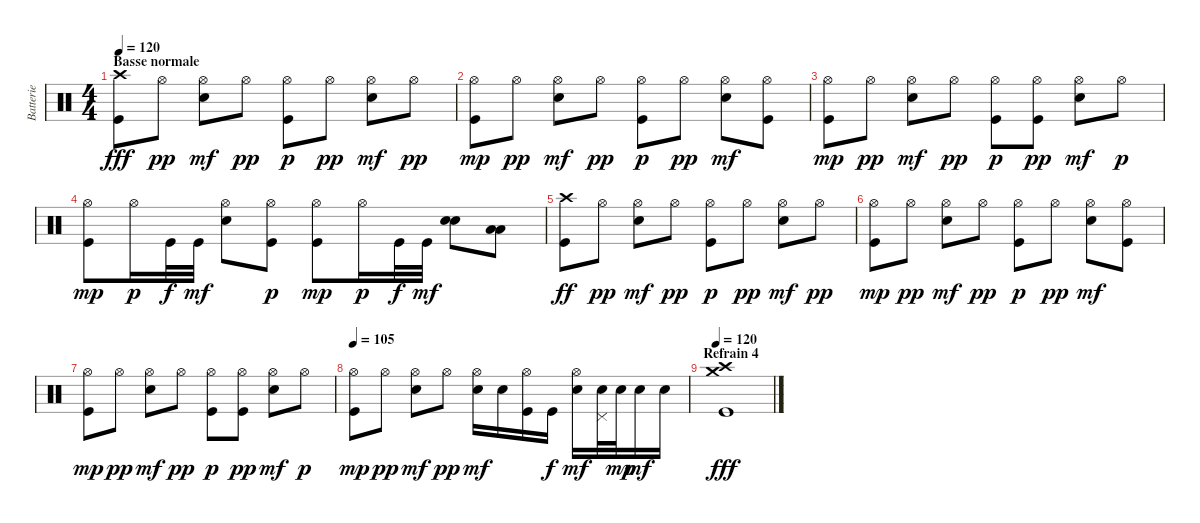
\track ("Batterie" "Batterie") {instrument percussion}
\staff {score}
\articulation defaults
\ts (4 4)
\section ("" "Basse normale")
\tempo 120
\clef neutral
\ks c
("Crash high (hit)" "Kick (hit)").8{dy fff} "Hi-Hat (open)".8{dy pp} ("Hi-Hat (open)" "Electric Snare (hit)").8{dy mf} "Hi-Hat (open)".8{dy pp} ("Hi-Hat (open)" "Kick (hit)").8{dy p} "Hi-Hat (open)".8{dy pp} ("Hi-Hat (open)" "Electric Snare (hit)").8{dy mf} "Hi-Hat (open)".8{dy pp} |
("Hi-Hat (open)" "Kick (hit)").8{dy mp} "Hi-Hat (open)".8{dy pp} ("Hi-Hat (open)" "Electric Snare (hit)").8{dy mf} "Hi-Hat (open)".8{dy pp} ("Hi-Hat (open)" "Kick (hit)").8{dy p} "Hi-Hat (open)".8{dy pp} ("Hi-Hat (open)" "Electric Snare (hit)").8{dy mf} ("Hi-Hat (open)" "Kick (hit)").8 |
("Hi-Hat (open)" "Kick (hit)").8{dy mp} "Hi-Hat (open)".8{dy pp} ("Hi-Hat (open)" "Electric Snare (hit)").8{dy mf} "Hi-Hat (open)".8{dy pp} ("Hi-Hat (open)" "Kick (hit)").8{dy p} ("Hi-Hat (open)" "Kick (hit)").8{dy pp} ("Hi-Hat (open)" "Electric Snare (hit)").8{dy mf} "Hi-Hat (open)".8{dy p} |
("Hi-Hat (open)" "Kick (hit)").8{dy mp} "Hi-Hat (open)".16{dy p} "Kick (hit)".32{dy f} "Kick (hit)".32{dy mf} ("Hi-Hat (open)" "Electric Snare (hit)").8 ("Hi-Hat (open)" "Kick (hit)").8{dy p} ("Hi-Hat (open)" "Kick (hit)").8{dy mp} "Hi-Hat (open)".16{dy p} "Kick (hit)".32{dy f} "Kick (hit)".32{dy mf} ("Electric Snare (hit)" "Electric Snare (hit)").8{bd 120} ("Low Tom (hit)" "Low Tom (hit)").8{bu 60} |
("Crash high (hit)" "Kick (hit)").8{dy ff} "Hi-Hat (open)".8{dy pp} ("Hi-Hat (open)" "Electric Snare (hit)").8{dy mf} "Hi-Hat (open)".8{dy pp} ("Hi-Hat (open)" "Kick (hit)").8{dy p} "Hi-Hat (open)".8{dy pp} ("Hi-Hat (open)" "Electric Snare (hit)").8{dy mf} "Hi-Hat (open)".8{dy pp} |
("Hi-Hat (open)" "Kick (hit)").8{dy mp} "Hi-Hat (open)".8{dy pp} ("Hi-Hat (open)" "Electric Snare (hit)").8{dy mf} "Hi-Hat (open)".8{dy pp} ("Hi-Hat (open)" "Kick (hit)").8{dy p} "Hi-Hat (open)".8{dy pp} ("Hi-Hat (open)" "Electric Snare (hit)").8{dy mf} ("Hi-Hat (open)" "Kick (hit)").8 |
("Hi-Hat (open)" "Kick (hit)").8{dy mp} "Hi-Hat (open)".8{dy pp} ("Hi-Hat (open)" "Electric Snare (hit)").8{dy mf} "Hi-Hat (open)".8{dy pp} ("Hi-Hat (open)" "Kick (hit)").8{dy p} ("Hi-Hat (open)" "Kick (hit)").8{dy pp} ("Hi-Hat (open)" "Electric Snare (hit)").8{dy mf} "Hi-Hat (open)".8{dy p} |
\tempo 105
("Hi-Hat (open)" "Kick (hit)").8{dy mp} "Hi-Hat (open)".8{dy pp} ("Hi-Hat (open)" "Electric Snare (hit)").8{dy mf} "Hi-Hat (open)".8{dy pp} ("Hi-Hat (open)" "Electric Snare (hit)").16{dy mf} "Electric Snare (hit)".16 ("Hi-Hat (open)" "Kick (hit)").16 "Kick (hit)".16{dy f} ("Hi-Hat (open)" "Electric Snare (hit)").16{dy mf} ("Pedal Hi-Hat (hit)" "Electric Snare (hit)").32 "Electric Snare (hit)".32{dy mp} "Electric Snare (hit)".16{dy mf} "Electric Snare (hit)".16 |
\section ("" "Refrain 4")
\tempo 120
("Crash medium (hit)" "Crash high (hit)" "Kick (hit)").1{dy fff}
